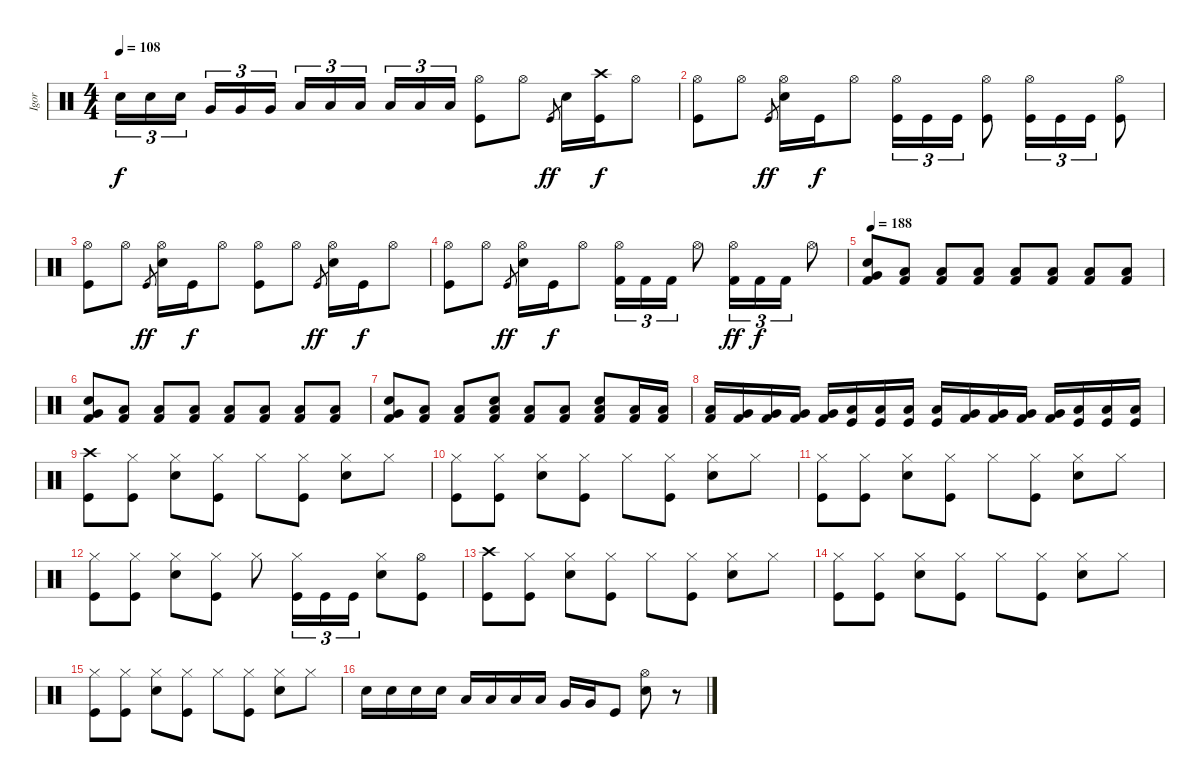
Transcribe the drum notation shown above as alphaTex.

\track ("Igor" "Igor") {instrument percussion}
\staff {score}
\articulation defaults
\ts (4 4)
\tempo 108
\clef neutral
\ks c "Snare (hit) 2".16{tu (3 2) dy f} "Snare (hit) 2".16{tu (3 2)} "Snare (hit) 2".16{tu (3 2)} "Very Low Tom (hit)".16{tu (3 2)} "Very Low Tom (hit)".16{tu (3 2)} "Very Low Tom (hit)".16{tu (3 2)} "Low Tom (hit)".16{tu (3 2)} "Low Tom (hit)".16{tu (3 2)} "Low Tom (hit)".16{tu (3 2)} "Low Floor Tom (hit)".16{tu (3 2)} "Low Floor Tom (hit)".16{tu (3 2)} "Low Floor Tom (hit)".16{tu (3 2)}
("Hi-Hat (open)" "Kick (hit)").8 "Hi-Hat (open)".8 "Kick (hit)".8{gr dy ff} "Snare (hit) 2".16 ("Crash high (hit)" "Kick (hit)").16{dy f} "Hi-Hat (open)".8 |
("Hi-Hat (open)" "Kick (hit)").8 "Hi-Hat (open)".8 "Kick (hit)".8{gr dy ff} ("Hi-Hat (open)" "Snare (hit) 2").16 "Kick (hit)".16{dy f} "Hi-Hat (open)".8 ("Hi-Hat (open)" "Kick (hit)").16{tu (3 2)} "Kick (hit)".16{tu (3 2)} "Kick (hit)".16{tu (3 2)} ("Hi-Hat (open)" "Kick (hit)").8 ("Hi-Hat (open)" "Kick (hit)").16{tu (3 2)} "Kick (hit)".16{tu (3 2)} "Kick (hit)".16{tu (3 2)} ("Hi-Hat (open)" "Kick (hit)").8 |
("Hi-Hat (open)" "Kick (hit)").8 "Hi-Hat (open)".8 "Kick (hit)".8{gr dy ff} ("Hi-Hat (open)" "Snare (hit) 2").16 "Kick (hit)".16{dy f} "Hi-Hat (open)".8 ("Hi-Hat (open)" "Kick (hit)").8 "Hi-Hat (open)".8 "Kick (hit)".8{gr dy ff} ("Hi-Hat (open)" "Snare (hit) 2").16 "Kick (hit)".16{dy f} "Hi-Hat (open)".8 |
("Hi-Hat (open)" "Kick (hit)").8 "Hi-Hat (open)".8 "Kick (hit)".8{gr dy ff} ("Hi-Hat (open)" "Snare (hit) 2").16 "Kick (hit)".16{dy f} "Hi-Hat (open)".8 ("Hi-Hat (open)" "Kick (hit) 2").16{tu (3 2)} "Kick (hit) 2".16{tu (3 2)} "Kick (hit) 2".16{tu (3 2)} "Hi-Hat (open)".8 ("Hi-Hat (open)" "Kick (hit) 2").16{tu (3 2) dy ff} "Kick (hit) 2".16{tu (3 2) dy f} "Kick (hit) 2".16{tu (3 2)} "Hi-Hat (open)".8 |
\tempo 188
("Very Low Tom (hit)" "Snare (hit) 2" "Kick (hit) 2").8 ("Low Floor Tom (hit)" "Kick (hit) 2").8 ("Low Floor Tom (hit)" "Kick (hit) 2").8 ("Low Floor Tom (hit)" "Kick (hit) 2").8 ("Low Floor Tom (hit)" "Kick (hit) 2").8 ("Low Floor Tom (hit)" "Kick (hit) 2").8 ("Low Floor Tom (hit)" "Kick (hit) 2").8 ("Low Floor Tom (hit)" "Kick (hit) 2").8 |
("Very Low Tom (hit)" "Snare (hit) 2" "Kick (hit) 2").8 ("Low Floor Tom (hit)" "Kick (hit) 2").8 ("Low Floor Tom (hit)" "Kick (hit) 2").8 ("Low Floor Tom (hit)" "Kick (hit) 2").8 ("Low Floor Tom (hit)" "Kick (hit) 2").8 ("Low Floor Tom (hit)" "Kick (hit) 2").8 ("Low Floor Tom (hit)" "Kick (hit) 2").8 ("Low Floor Tom (hit)" "Kick (hit) 2").8 |
("Very Low Tom (hit)" "Snare (hit) 2" "Kick (hit) 2").8 ("Low Floor Tom (hit)" "Kick (hit) 2").8 ("Low Floor Tom (hit)" "Kick (hit) 2").8 ("Low Floor Tom (hit)" "Snare (hit) 2" "Kick (hit) 2").8 ("Low Floor Tom (hit)" "Kick (hit) 2").8 ("Low Floor Tom (hit)" "Kick (hit) 2").8 ("Low Floor Tom (hit)" "Snare (hit) 2" "Kick (hit) 2").8 ("Low Tom (hit)" "Kick (hit) 2").16 ("Low Tom (hit)" "Kick (hit) 2").16 |
("Low Tom (hit)" "Kick (hit) 2").16 ("Very Low Tom (hit)" "Kick (hit) 2").16 ("Very Low Tom (hit)" "Kick (hit) 2").16 ("Very Low Tom (hit)" "Kick (hit) 2").16 ("Very Low Tom (hit)" "Kick (hit) 2").16 ("Low Floor Tom (hit)" "Kick (hit)").16 ("Low Floor Tom (hit)" "Kick (hit)").16 ("Low Floor Tom (hit)" "Kick (hit)").16 ("Low Floor Tom (hit)" "Kick (hit)").16 ("Very Low Tom (hit)" "Kick (hit) 2").16 ("Very Low Tom (hit)" "Kick (hit) 2").16 ("Very Low Tom (hit)" "Kick (hit) 2").16 ("Very Low Tom (hit)" "Kick (hit) 2").16 ("Low Floor Tom (hit)" "Kick (hit)").16 ("Low Floor Tom (hit)" "Kick (hit)").16 ("Low Floor Tom (hit)" "Kick (hit)").16 |
("Crash high (hit)" "Kick (hit)").8 ("Hi-Hat (closed)" "Kick (hit)").8 ("Hi-Hat (closed)" "Snare (hit) 2").8 ("Hi-Hat (closed)" "Kick (hit)").8 "Hi-Hat (closed)".8 ("Hi-Hat (closed)" "Kick (hit)").8 ("Hi-Hat (closed)" "Snare (hit) 2").8 "Hi-Hat (closed)".8 |
("Hi-Hat (closed)" "Kick (hit)").8 ("Hi-Hat (closed)" "Kick (hit)").8 ("Hi-Hat (closed)" "Snare (hit) 2").8 ("Hi-Hat (closed)" "Kick (hit)").8 "Hi-Hat (closed)".8 ("Hi-Hat (closed)" "Kick (hit)").8 ("Hi-Hat (closed)" "Snare (hit) 2").8 "Hi-Hat (closed)".8 |
("Hi-Hat (closed)" "Kick (hit)").8 ("Hi-Hat (closed)" "Kick (hit)").8 ("Hi-Hat (closed)" "Snare (hit) 2").8 ("Hi-Hat (closed)" "Kick (hit)").8 "Hi-Hat (closed)".8 ("Hi-Hat (closed)" "Kick (hit)").8 ("Hi-Hat (closed)" "Snare (hit) 2").8 "Hi-Hat (closed)".8 |
("Hi-Hat (closed)" "Kick (hit)").8 ("Hi-Hat (closed)" "Kick (hit)").8 ("Hi-Hat (closed)" "Snare (hit) 2").8 ("Hi-Hat (closed)" "Kick (hit)").8 "Hi-Hat (closed)".8 ("Hi-Hat (closed)" "Kick (hit)").16{tu (3 2)} "Kick (hit)".16{tu (3 2)} "Kick (hit)".16{tu (3 2)} ("Hi-Hat (closed)" "Snare (hit) 2").8 ("Hi-Hat (open)" "Kick (hit)").8 |
("Crash high (hit)" "Kick (hit)").8 ("Hi-Hat (closed)" "Kick (hit)").8 ("Hi-Hat (closed)" "Snare (hit) 2").8 ("Hi-Hat (closed)" "Kick (hit)").8 "Hi-Hat (closed)".8 ("Hi-Hat (closed)" "Kick (hit)").8 ("Hi-Hat (closed)" "Snare (hit) 2").8 "Hi-Hat (closed)".8 |
("Hi-Hat (closed)" "Kick (hit)").8 ("Hi-Hat (closed)" "Kick (hit)").8 ("Hi-Hat (closed)" "Snare (hit) 2").8 ("Hi-Hat (closed)" "Kick (hit)").8 "Hi-Hat (closed)".8 ("Hi-Hat (closed)" "Kick (hit)").8 ("Hi-Hat (closed)" "Snare (hit) 2").8 "Hi-Hat (closed)".8 |
("Hi-Hat (closed)" "Kick (hit)").8 ("Hi-Hat (closed)" "Kick (hit)").8 ("Hi-Hat (closed)" "Snare (hit) 2").8 ("Hi-Hat (closed)" "Kick (hit)").8 "Hi-Hat (closed)".8 ("Hi-Hat (closed)" "Kick (hit)").8 ("Hi-Hat (closed)" "Snare (hit) 2").8 "Hi-Hat (closed)".8 |
"Snare (hit) 2".16 "Snare (hit) 2".16 "Snare (hit) 2".16 "Snare (hit) 2".16 "Low Tom (hit)".16 "Low Tom (hit)".16 "Low Tom (hit)".16 "Low Tom (hit)".16 "Very Low Tom (hit)".16 "Very Low Tom (hit)".16 "Kick (hit)".8 ("Hi-Hat (open)" "Snare (hit) 2").8 r.8
